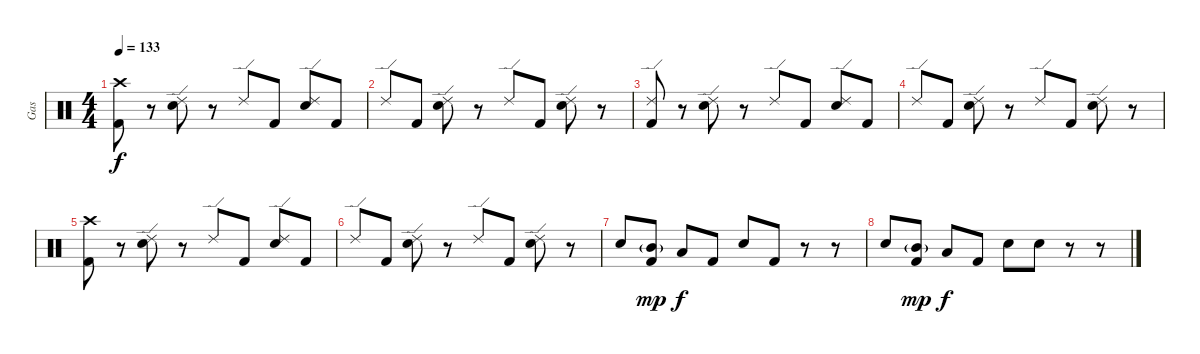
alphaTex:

\track ("Gas" "Gas") {instrument percussion}
\staff {score}
\articulation defaults
\ts (4 4)
\tempo 133
\clef neutral
\ks c
("Crash high (hit)" "Kick (hit) 2").8{dy f} r.8 ("Ride (edge) 2" "Electric Snare (hit)").8 r.8 "Ride (edge) 2".8 "Kick (hit) 2".8 ("Ride (edge) 2" "Electric Snare (hit)").8 "Kick (hit) 2".8 |
"Ride (edge) 2".8 "Kick (hit) 2".8 ("Ride (edge) 2" "Electric Snare (hit)").8 r.8 "Ride (edge) 2".8 "Kick (hit) 2".8 ("Ride (edge) 2" "Electric Snare (hit)").8 r.8 |
("Ride (edge) 2" "Kick (hit) 2").8 r.8 ("Ride (edge) 2" "Electric Snare (hit)").8 r.8 "Ride (edge) 2".8 "Kick (hit) 2".8 ("Ride (edge) 2" "Electric Snare (hit)").8 "Kick (hit) 2".8 |
"Ride (edge) 2".8 "Kick (hit) 2".8 ("Ride (edge) 2" "Electric Snare (hit)").8 r.8 "Ride (edge) 2".8 "Kick (hit) 2".8 ("Ride (edge) 2" "Electric Snare (hit)").8 r.8 |
("Crash high (hit)" "Kick (hit) 2").8 r.8 ("Ride (edge) 2" "Electric Snare (hit)").8 r.8 "Ride (edge) 2".8 "Kick (hit) 2".8 ("Ride (edge) 2" "Electric Snare (hit)").8 "Kick (hit) 2".8 |
"Ride (edge) 2".8 "Kick (hit) 2".8 ("Ride (edge) 2" "Electric Snare (hit)").8 r.8 "Ride (edge) 2".8 "Kick (hit) 2".8 ("Ride (edge) 2" "Electric Snare (hit)").8 r.8 |
"Electric Snare (hit)".8 ("Kick (hit) 2" "Mid Tom (hit)"{g}).8{dy mp} "Low Tom (hit)".8{dy f} "Kick (hit) 2".8 "Electric Snare (hit)".8 "Kick (hit) 2".8 r.8 r.8 |
"Electric Snare (hit)".8 ("Kick (hit) 2" "Mid Tom (hit)"{g}).8{dy mp} "Low Tom (hit)".8{dy f} "Kick (hit) 2".8 "Electric Snare (hit)".8 "Electric Snare (hit)".8 r.8 r.8
